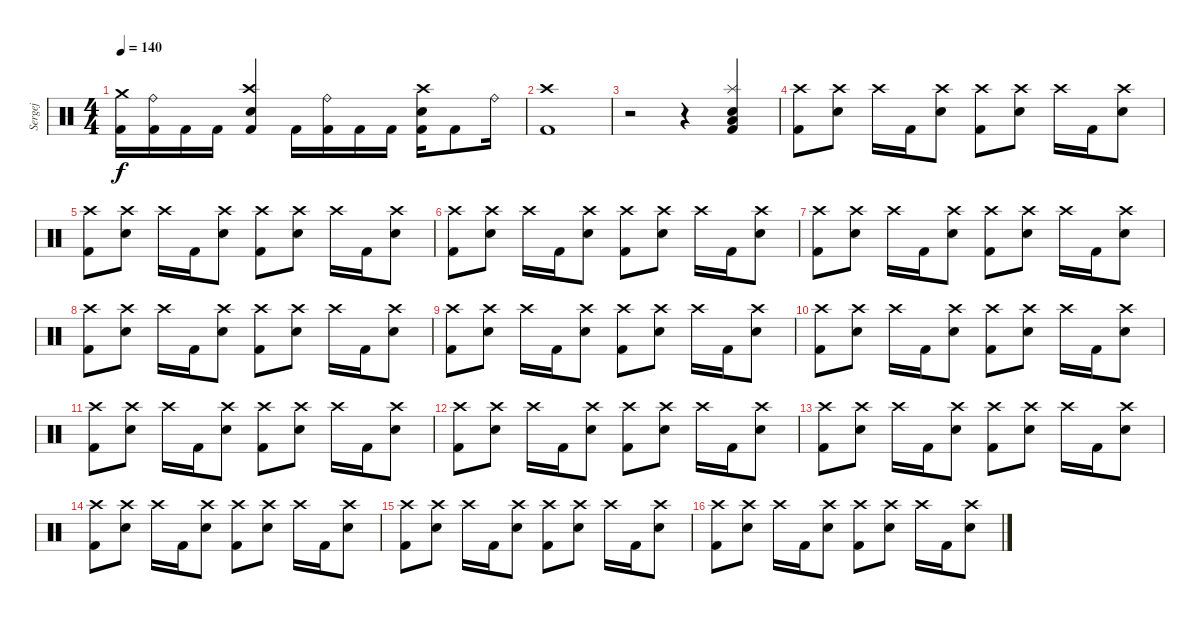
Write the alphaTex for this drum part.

\track ("Sergej" "Sergej") {instrument percussion}
\staff {score}
\articulation defaults
\ts (4 4)
\tempo 140
\clef neutral
\ks c
("Crash medium (hit)" "Kick (hit) 2").16{dy f} ("Ride (bell)" "Kick (hit) 2").16 "Kick (hit) 2".16 "Kick (hit) 2".16 ("Crash high (hit)" "Snare (hit) 2" "Kick (hit) 2").4 "Kick (hit) 2".16 ("Ride (bell)" "Kick (hit) 2").16 "Kick (hit) 2".16 "Kick (hit) 2".16 ("Crash high (hit)" "Snare (hit) 2" "Kick (hit) 2").16 "Kick (hit) 2".8 "Ride (bell)".16 |
("Crash high (hit)" "Kick (hit) 2").1 |
r.2 r.4 ("Splash (hit)" "Kick (hit) 2" "Low Floor Tom (hit)" "Snare (hit) 2").4 |
("Crash high (hit)" "Kick (hit) 2").8 ("Crash high (hit)" "Snare (hit) 2").8 "Crash high (hit)".16 "Kick (hit) 2".16 ("Crash high (hit)" "Snare (hit) 2").8 ("Crash high (hit)" "Kick (hit) 2").8 ("Crash high (hit)" "Snare (hit) 2").8 "Crash high (hit)".16 "Kick (hit) 2".16 ("Crash high (hit)" "Snare (hit) 2").8 |
("Crash high (hit)" "Kick (hit) 2").8 ("Crash high (hit)" "Snare (hit) 2").8 "Crash high (hit)".16 "Kick (hit) 2".16 ("Crash high (hit)" "Snare (hit) 2").8 ("Crash high (hit)" "Kick (hit) 2").8 ("Crash high (hit)" "Snare (hit) 2").8 "Crash high (hit)".16 "Kick (hit) 2".16 ("Crash high (hit)" "Snare (hit) 2").8 |
("Crash high (hit)" "Kick (hit) 2").8 ("Crash high (hit)" "Snare (hit) 2").8 "Crash high (hit)".16 "Kick (hit) 2".16 ("Crash high (hit)" "Snare (hit) 2").8 ("Crash high (hit)" "Kick (hit) 2").8 ("Crash high (hit)" "Snare (hit) 2").8 "Crash high (hit)".16 "Kick (hit) 2".16 ("Crash high (hit)" "Snare (hit) 2").8 |
("Crash high (hit)" "Kick (hit) 2").8 ("Crash high (hit)" "Snare (hit) 2").8 "Crash high (hit)".16 "Kick (hit) 2".16 ("Crash high (hit)" "Snare (hit) 2").8 ("Crash high (hit)" "Kick (hit) 2").8 ("Crash high (hit)" "Snare (hit) 2").8 "Crash high (hit)".16 "Kick (hit) 2".16 ("Crash high (hit)" "Snare (hit) 2").8 |
("Crash high (hit)" "Kick (hit) 2").8 ("Crash high (hit)" "Snare (hit) 2").8 "Crash high (hit)".16 "Kick (hit) 2".16 ("Crash high (hit)" "Snare (hit) 2").8 ("Crash high (hit)" "Kick (hit) 2").8 ("Crash high (hit)" "Snare (hit) 2").8 "Crash high (hit)".16 "Kick (hit) 2".16 ("Crash high (hit)" "Snare (hit) 2").8 |
("Crash high (hit)" "Kick (hit) 2").8 ("Crash high (hit)" "Snare (hit) 2").8 "Crash high (hit)".16 "Kick (hit) 2".16 ("Crash high (hit)" "Snare (hit) 2").8 ("Crash high (hit)" "Kick (hit) 2").8 ("Crash high (hit)" "Snare (hit) 2").8 "Crash high (hit)".16 "Kick (hit) 2".16 ("Crash high (hit)" "Snare (hit) 2").8 |
("Crash high (hit)" "Kick (hit) 2").8 ("Crash high (hit)" "Snare (hit) 2").8 "Crash high (hit)".16 "Kick (hit) 2".16 ("Crash high (hit)" "Snare (hit) 2").8 ("Crash high (hit)" "Kick (hit) 2").8 ("Crash high (hit)" "Snare (hit) 2").8 "Crash high (hit)".16 "Kick (hit) 2".16 ("Crash high (hit)" "Snare (hit) 2").8 |
("Crash high (hit)" "Kick (hit) 2").8 ("Crash high (hit)" "Snare (hit) 2").8 "Crash high (hit)".16 "Kick (hit) 2".16 ("Crash high (hit)" "Snare (hit) 2").8 ("Crash high (hit)" "Kick (hit) 2").8 ("Crash high (hit)" "Snare (hit) 2").8 "Crash high (hit)".16 "Kick (hit) 2".16 ("Crash high (hit)" "Snare (hit) 2").8 |
("Crash high (hit)" "Kick (hit) 2").8 ("Crash high (hit)" "Snare (hit) 2").8 "Crash high (hit)".16 "Kick (hit) 2".16 ("Crash high (hit)" "Snare (hit) 2").8 ("Crash high (hit)" "Kick (hit) 2").8 ("Crash high (hit)" "Snare (hit) 2").8 "Crash high (hit)".16 "Kick (hit) 2".16 ("Crash high (hit)" "Snare (hit) 2").8 |
("Crash high (hit)" "Kick (hit) 2").8 ("Crash high (hit)" "Snare (hit) 2").8 "Crash high (hit)".16 "Kick (hit) 2".16 ("Crash high (hit)" "Snare (hit) 2").8 ("Crash high (hit)" "Kick (hit) 2").8 ("Crash high (hit)" "Snare (hit) 2").8 "Crash high (hit)".16 "Kick (hit) 2".16 ("Crash high (hit)" "Snare (hit) 2").8 |
("Crash high (hit)" "Kick (hit) 2").8 ("Crash high (hit)" "Snare (hit) 2").8 "Crash high (hit)".16 "Kick (hit) 2".16 ("Crash high (hit)" "Snare (hit) 2").8 ("Crash high (hit)" "Kick (hit) 2").8 ("Crash high (hit)" "Snare (hit) 2").8 "Crash high (hit)".16 "Kick (hit) 2".16 ("Crash high (hit)" "Snare (hit) 2").8 |
("Crash high (hit)" "Kick (hit) 2").8 ("Crash high (hit)" "Snare (hit) 2").8 "Crash high (hit)".16 "Kick (hit) 2".16 ("Crash high (hit)" "Snare (hit) 2").8 ("Crash high (hit)" "Kick (hit) 2").8 ("Crash high (hit)" "Snare (hit) 2").8 "Crash high (hit)".16 "Kick (hit) 2".16 ("Crash high (hit)" "Snare (hit) 2").8 |
("Crash high (hit)" "Kick (hit) 2").8 ("Crash high (hit)" "Snare (hit) 2").8 "Crash high (hit)".16 "Kick (hit) 2".16 ("Crash high (hit)" "Snare (hit) 2").8 ("Crash high (hit)" "Kick (hit) 2").8 ("Crash high (hit)" "Snare (hit) 2").8 "Crash high (hit)".16 "Kick (hit) 2".16 ("Crash high (hit)" "Snare (hit) 2").8
